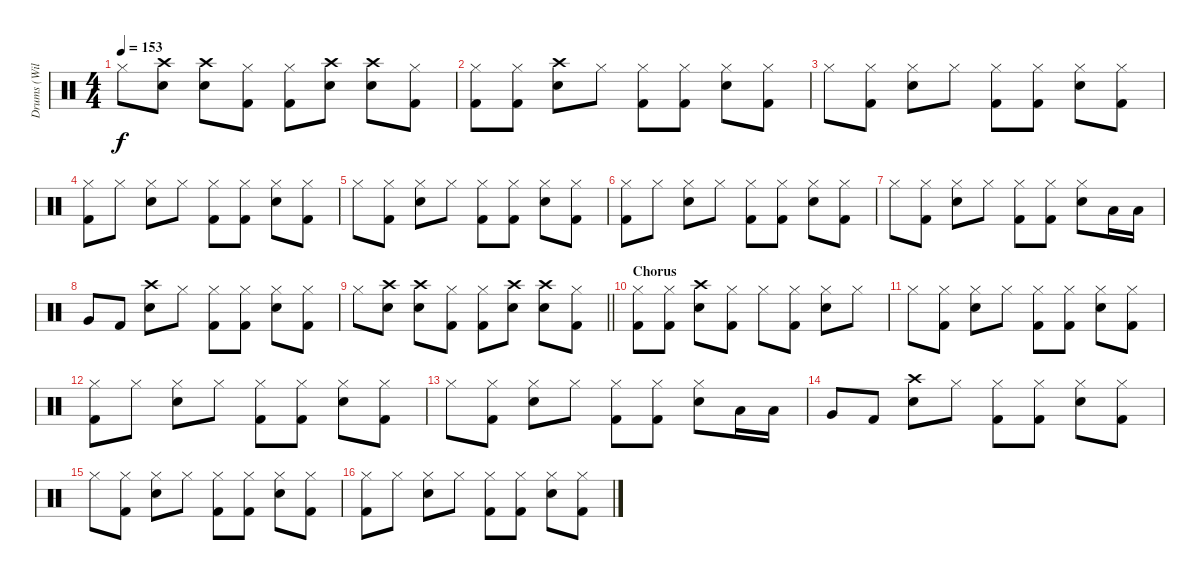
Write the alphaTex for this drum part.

\track ("Drums (Williams)" "Drums (Wil") {instrument percussion}
\staff {score}
\articulation defaults
\ts (4 4)
\tempo 153
\clef neutral
\ks c "Hi-Hat (closed)".8{dy f}
("Crash high (hit)" "Electric Snare (hit)").8 ("Crash high (hit)" "Electric Snare (hit)").8 ("Hi-Hat (closed)" "Kick (hit) 2").8 ("Hi-Hat (closed)" "Kick (hit) 2").8 ("Crash high (hit)" "Electric Snare (hit)").8 ("Crash high (hit)" "Electric Snare (hit)").8 ("Hi-Hat (closed)" "Kick (hit) 2").8 |
("Hi-Hat (closed)" "Kick (hit) 2").8 ("Hi-Hat (closed)" "Kick (hit) 2").8 ("Crash high (hit)" "Electric Snare (hit)").8 "Hi-Hat (closed)".8 ("Hi-Hat (closed)" "Kick (hit) 2").8 ("Hi-Hat (closed)" "Kick (hit) 2").8 ("Hi-Hat (closed)" "Electric Snare (hit)").8 ("Hi-Hat (closed)" "Kick (hit) 2").8 |
"Hi-Hat (closed)".8 ("Hi-Hat (closed)" "Kick (hit) 2").8 ("Hi-Hat (closed)" "Electric Snare (hit)").8 "Hi-Hat (closed)".8 ("Hi-Hat (closed)" "Kick (hit) 2").8 ("Hi-Hat (closed)" "Kick (hit) 2").8 ("Hi-Hat (closed)" "Electric Snare (hit)").8 ("Hi-Hat (closed)" "Kick (hit) 2").8 |
("Hi-Hat (closed)" "Kick (hit) 2").8 "Hi-Hat (closed)".8 ("Hi-Hat (closed)" "Electric Snare (hit)").8 "Hi-Hat (closed)".8 ("Hi-Hat (closed)" "Kick (hit) 2").8 ("Hi-Hat (closed)" "Kick (hit) 2").8 ("Hi-Hat (closed)" "Electric Snare (hit)").8 ("Hi-Hat (closed)" "Kick (hit) 2").8 |
"Hi-Hat (closed)".8 ("Hi-Hat (closed)" "Kick (hit) 2").8 ("Hi-Hat (closed)" "Electric Snare (hit)").8 "Hi-Hat (closed)".8 ("Hi-Hat (closed)" "Kick (hit) 2").8 ("Hi-Hat (closed)" "Kick (hit) 2").8 ("Hi-Hat (closed)" "Electric Snare (hit)").8 ("Hi-Hat (closed)" "Kick (hit) 2").8 |
("Hi-Hat (closed)" "Kick (hit) 2").8 "Hi-Hat (closed)".8 ("Hi-Hat (closed)" "Electric Snare (hit)").8 "Hi-Hat (closed)".8 ("Hi-Hat (closed)" "Kick (hit) 2").8 ("Hi-Hat (closed)" "Kick (hit) 2").8 ("Hi-Hat (closed)" "Electric Snare (hit)").8 ("Hi-Hat (closed)" "Kick (hit) 2").8 |
"Hi-Hat (closed)".8 ("Hi-Hat (closed)" "Kick (hit) 2").8 ("Hi-Hat (closed)" "Electric Snare (hit)").8 "Hi-Hat (closed)".8 ("Hi-Hat (closed)" "Kick (hit) 2").8 ("Hi-Hat (closed)" "Kick (hit) 2").8 ("Hi-Hat (closed)" "Electric Snare (hit)").8 "Low Tom (hit)".16 "Low Tom (hit)".16 |
"Very Low Tom (hit)".8 "Kick (hit) 2".8 ("Crash high (hit)" "Electric Snare (hit)").8 "Hi-Hat (closed)".8 ("Hi-Hat (closed)" "Kick (hit) 2").8 ("Hi-Hat (closed)" "Kick (hit) 2").8 ("Hi-Hat (closed)" "Electric Snare (hit)").8 ("Hi-Hat (closed)" "Kick (hit) 2").8 |
\barLineRight lightlight "Hi-Hat (closed)".8
("Crash high (hit)" "Electric Snare (hit)").8 ("Crash high (hit)" "Electric Snare (hit)").8 ("Hi-Hat (closed)" "Kick (hit) 2").8 ("Hi-Hat (closed)" "Kick (hit) 2").8 ("Crash high (hit)" "Electric Snare (hit)").8 ("Crash high (hit)" "Electric Snare (hit)").8 ("Hi-Hat (closed)" "Kick (hit) 2").8 |
\section ("" "Chorus")
("Hi-Hat (closed)" "Kick (hit) 2").8 ("Hi-Hat (closed)" "Kick (hit) 2").8 ("Crash high (hit)" "Electric Snare (hit)").8 ("Hi-Hat (closed)" "Kick (hit) 2").8 "Hi-Hat (closed)".8 ("Hi-Hat (closed)" "Kick (hit) 2").8 ("Hi-Hat (closed)" "Electric Snare (hit)").8 "Hi-Hat (closed)".8 |
"Hi-Hat (closed)".8 ("Hi-Hat (closed)" "Kick (hit) 2").8 ("Hi-Hat (closed)" "Electric Snare (hit)").8 "Hi-Hat (closed)".8 ("Hi-Hat (closed)" "Kick (hit) 2").8 ("Hi-Hat (closed)" "Kick (hit) 2").8 ("Hi-Hat (closed)" "Electric Snare (hit)").8 ("Hi-Hat (closed)" "Kick (hit) 2").8 |
("Hi-Hat (closed)" "Kick (hit) 2").8 "Hi-Hat (closed)".8 ("Hi-Hat (closed)" "Electric Snare (hit)").8 "Hi-Hat (closed)".8 ("Hi-Hat (closed)" "Kick (hit) 2").8 ("Hi-Hat (closed)" "Kick (hit) 2").8 ("Hi-Hat (closed)" "Electric Snare (hit)").8 ("Hi-Hat (closed)" "Kick (hit) 2").8 |
"Hi-Hat (closed)".8 ("Hi-Hat (closed)" "Kick (hit) 2").8 ("Hi-Hat (closed)" "Electric Snare (hit)").8 "Hi-Hat (closed)".8 ("Hi-Hat (closed)" "Kick (hit) 2").8 ("Hi-Hat (closed)" "Kick (hit) 2").8 ("Hi-Hat (closed)" "Electric Snare (hit)").8 "Low Tom (hit)".16 "Low Tom (hit)".16 |
"Very Low Tom (hit)".8 "Kick (hit) 2".8 ("Crash high (hit)" "Electric Snare (hit)").8 "Hi-Hat (closed)".8 ("Hi-Hat (closed)" "Kick (hit) 2").8 ("Hi-Hat (closed)" "Kick (hit) 2").8 ("Hi-Hat (closed)" "Electric Snare (hit)").8 ("Hi-Hat (closed)" "Kick (hit) 2").8 |
"Hi-Hat (closed)".8 ("Hi-Hat (closed)" "Kick (hit) 2").8 ("Hi-Hat (closed)" "Electric Snare (hit)").8 "Hi-Hat (closed)".8 ("Hi-Hat (closed)" "Kick (hit) 2").8 ("Hi-Hat (closed)" "Kick (hit) 2").8 ("Hi-Hat (closed)" "Electric Snare (hit)").8 ("Hi-Hat (closed)" "Kick (hit) 2").8 |
("Hi-Hat (closed)" "Kick (hit) 2").8 "Hi-Hat (closed)".8 ("Hi-Hat (closed)" "Electric Snare (hit)").8 "Hi-Hat (closed)".8 ("Hi-Hat (closed)" "Kick (hit) 2").8 ("Hi-Hat (closed)" "Kick (hit) 2").8 ("Hi-Hat (closed)" "Electric Snare (hit)").8 ("Hi-Hat (closed)" "Kick (hit) 2").8
